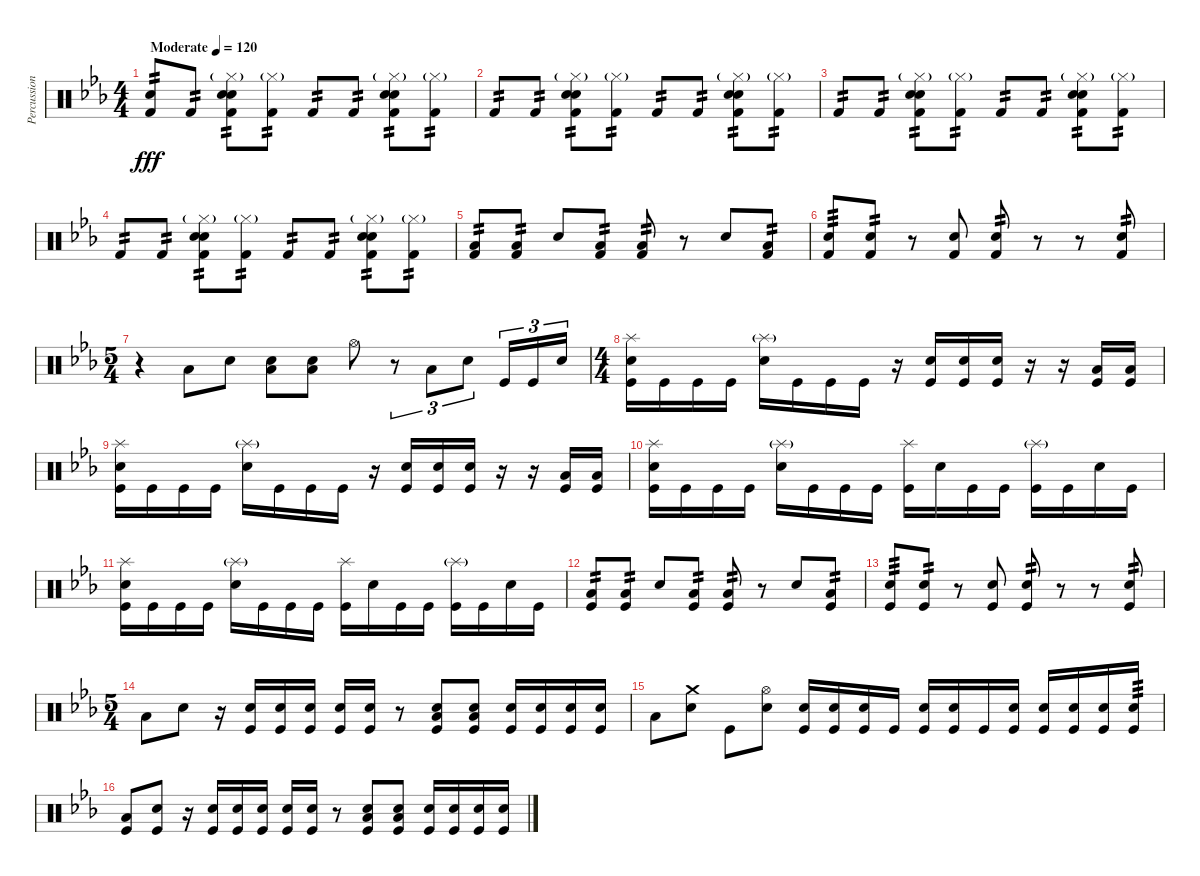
\track ("Percussion" "Percussion") {instrument percussion}
\staff {score}
\articulation defaults
\ts (4 4)
\tempo (120 "Moderate")
\clef neutral
\ks cminor
("Snare (hit) 2" "Kick (hit) 2").8{tp 2 dy fff} "Kick (hit) 2".8{tp 2} ("Electric Snare (hit)" "Hi-Hat (closed)"{g} "Hand Clap (hit)" "Kick (hit) 2").8{tp 2} ("Hi-Hat (closed)"{g} "Kick (hit) 2").8{tp 2} "Kick (hit) 2".8{tp 2} "Kick (hit) 2".8{tp 2} ("Electric Snare (hit)" "Hi-Hat (closed)"{g} "Hand Clap (hit)" "Kick (hit) 2").8{tp 2} ("Hi-Hat (closed)"{g} "Kick (hit) 2").8{tp 2} |
"Kick (hit) 2".8{tp 2} "Kick (hit) 2".8{tp 2} ("Electric Snare (hit)" "Hi-Hat (closed)"{g} "Hand Clap (hit)" "Kick (hit) 2").8{tp 2} ("Hi-Hat (closed)"{g} "Kick (hit) 2").8{tp 2} "Kick (hit) 2".8{tp 2} "Kick (hit) 2".8{tp 2} ("Electric Snare (hit)" "Hi-Hat (closed)"{g} "Hand Clap (hit)" "Kick (hit) 2").8{tp 2} ("Hi-Hat (closed)"{g} "Kick (hit) 2").8{tp 2} |
"Kick (hit) 2".8{tp 2} "Kick (hit) 2".8{tp 2} ("Electric Snare (hit)" "Hi-Hat (closed)"{g} "Hand Clap (hit)" "Kick (hit) 2").8{tp 2} ("Hi-Hat (closed)"{g} "Kick (hit) 2").8{tp 2} "Kick (hit) 2".8{tp 2} "Kick (hit) 2".8{tp 2} ("Electric Snare (hit)" "Hi-Hat (closed)"{g} "Hand Clap (hit)" "Kick (hit) 2").8{tp 2} ("Hi-Hat (closed)"{g} "Kick (hit) 2").8{tp 2} |
"Kick (hit) 2".8{tp 2} "Kick (hit) 2".8{tp 2} ("Electric Snare (hit)" "Hi-Hat (closed)"{g} "Hand Clap (hit)" "Kick (hit) 2").8{tp 2} ("Hi-Hat (closed)"{g} "Kick (hit) 2").8{tp 2} "Kick (hit) 2".8{tp 2} "Kick (hit) 2".8{tp 2} ("Electric Snare (hit)" "Hi-Hat (closed)"{g} "Hand Clap (hit)" "Kick (hit) 2").8{tp 2} ("Hi-Hat (closed)"{g} "Kick (hit) 2").8{tp 2} |
("Low Floor Tom (hit)" "Kick (hit) 2").8{tp 2} ("Low Floor Tom (hit)" "Kick (hit) 2").8{tp 2} "Hand Clap (hit)".8 ("Low Floor Tom (hit)" "Kick (hit) 2").8{tp 2} ("Low Floor Tom (hit)" "Kick (hit) 2").8{tp 2} r.8 "Hand Clap (hit)".8 ("Low Floor Tom (hit)" "Kick (hit) 2").8{tp 2} |
("Electric Snare (hit)" "Kick (hit) 2").8{tp 3} ("Electric Snare (hit)" "Kick (hit) 2").8{tp 2} r.8 ("Electric Snare (hit)" "Kick (hit) 2").8 ("Electric Snare (hit)" "Kick (hit) 2").8{tp 2} r.8 r.8 ("Electric Snare (hit)" "Kick (hit) 2").8{tp 2} |
\ts (5 4)
r.4 "Low Floor Tom (hit)".8 "Snare (hit) 2".8 ("Snare (hit) 2" "Low Floor Tom (hit)").8 ("Snare (hit) 2" "Low Floor Tom (hit)").8 "Hi-Hat (open)".8 r.8{tu (3 2)} "Low Floor Tom (hit)".8{tu (3 2)} "Snare (hit) 2".8{tu (3 2)} "Kick (hit)".16{tu (3 2)} "Kick (hit)".16{tu (3 2)} "Snare (hit) 2".16{tu (3 2)} |
\ts (4 4)
("Splash (hit)" "Snare (hit) 2" "Kick (hit)").16 "Kick (hit)".16 "Kick (hit)".16 "Kick (hit)".16 ("Splash (hit)"{g} "Snare (hit) 2").16 "Kick (hit)".16 "Kick (hit)".16 "Kick (hit)".16 r.16 ("Snare (hit) 2" "Kick (hit)").16 ("Snare (hit) 2" "Kick (hit)").16 ("Snare (hit) 2" "Kick (hit)").16 r.16 r.16 ("Kick (hit)" "Low Floor Tom (hit)").16 ("Kick (hit)" "Low Floor Tom (hit)").16 |
("Splash (hit)" "Snare (hit) 2" "Kick (hit)").16 "Kick (hit)".16 "Kick (hit)".16 "Kick (hit)".16 ("Splash (hit)"{g} "Snare (hit) 2").16 "Kick (hit)".16 "Kick (hit)".16 "Kick (hit)".16 r.16 ("Snare (hit) 2" "Kick (hit)").16 ("Snare (hit) 2" "Kick (hit)").16 ("Snare (hit) 2" "Kick (hit)").16 r.16 r.16 ("Kick (hit)" "Low Floor Tom (hit)").16 ("Kick (hit)" "Low Floor Tom (hit)").16 |
("Splash (hit)" "Snare (hit) 2" "Kick (hit)").16 "Kick (hit)".16 "Kick (hit)".16 "Kick (hit)".16 ("Splash (hit)"{g} "Snare (hit) 2").16 "Kick (hit)".16 "Kick (hit)".16 "Kick (hit)".16 ("Splash (hit)" "Kick (hit)").16 "Snare (hit) 2".16 "Kick (hit)".16 "Kick (hit)".16 ("Splash (hit)"{g} "Kick (hit)").16 "Kick (hit)".16 "Snare (hit) 2".16 "Kick (hit)".16 |
("Splash (hit)" "Snare (hit) 2" "Kick (hit)").16 "Kick (hit)".16 "Kick (hit)".16 "Kick (hit)".16 ("Splash (hit)"{g} "Snare (hit) 2").16 "Kick (hit)".16 "Kick (hit)".16 "Kick (hit)".16 ("Splash (hit)" "Kick (hit)").16 "Snare (hit) 2".16 "Kick (hit)".16 "Kick (hit)".16 ("Splash (hit)"{g} "Kick (hit)").16 "Kick (hit)".16 "Snare (hit) 2".16 "Kick (hit)".16 |
("Low Floor Tom (hit)" "Kick (hit)").8{tp 2} ("Low Floor Tom (hit)" "Kick (hit)").8{tp 2} "Snare (hit) 2".8 ("Low Floor Tom (hit)" "Kick (hit)").8{tp 2} ("Low Floor Tom (hit)" "Kick (hit)").8{tp 2} r.8 "Snare (hit) 2".8 ("Low Floor Tom (hit)" "Kick (hit)").8{tp 2} |
("Snare (hit) 2" "Kick (hit)").8{tp 3} ("Snare (hit) 2" "Kick (hit)").8{tp 2} r.8 ("Snare (hit) 2" "Kick (hit)").8 ("Snare (hit) 2" "Kick (hit)").8{tp 2} r.8 r.8 ("Snare (hit) 2" "Kick (hit)").8{tp 2} |
\ts (5 4)
"Low Floor Tom (hit)".8 "Snare (hit) 2".8 r.16 ("Snare (hit) 2" "Kick (hit)").16 ("Snare (hit) 2" "Kick (hit)").16 ("Snare (hit) 2" "Kick (hit)").16 ("Snare (hit) 2" "Kick (hit)").16 ("Snare (hit) 2" "Kick (hit)").16 r.8 ("Snare (hit) 2" "Low Floor Tom (hit)" "Kick (hit)").8 ("Snare (hit) 2" "Low Floor Tom (hit)" "Kick (hit)").8 ("Snare (hit) 2" "Kick (hit)").16 ("Snare (hit) 2" "Kick (hit)").16 ("Snare (hit) 2" "Kick (hit)").16 ("Snare (hit) 2" "Kick (hit)").16 |
"Low Floor Tom (hit)".8 ("Crash medium (hit)" "Snare (hit) 2").8 "Kick (hit)".8 ("Hi-Hat (open)" "Snare (hit) 2").8 ("Snare (hit) 2" "Kick (hit)").16 ("Snare (hit) 2" "Kick (hit)").16 ("Snare (hit) 2" "Kick (hit)").16 "Kick (hit)".16 ("Snare (hit) 2" "Kick (hit)").16 ("Snare (hit) 2" "Kick (hit)").16 "Kick (hit)".16 ("Snare (hit) 2" "Kick (hit)").16 ("Snare (hit) 2" "Kick (hit)").16 ("Snare (hit) 2" "Kick (hit)").16 ("Snare (hit) 2" "Kick (hit)").16 ("Snare (hit) 2" "Kick (hit)").16{tp 3} |
("Low Floor Tom (hit)" "Kick (hit)").8 ("Snare (hit) 2" "Kick (hit)").8 r.16 ("Snare (hit) 2" "Kick (hit)").16 ("Snare (hit) 2" "Kick (hit)").16 ("Snare (hit) 2" "Kick (hit)").16 ("Snare (hit) 2" "Kick (hit)").16 ("Snare (hit) 2" "Kick (hit)").16 r.8 ("Snare (hit) 2" "Low Floor Tom (hit)" "Kick (hit)").8 ("Snare (hit) 2" "Low Floor Tom (hit)" "Kick (hit)").8 ("Snare (hit) 2" "Kick (hit)").16 ("Snare (hit) 2" "Kick (hit)").16 ("Snare (hit) 2" "Kick (hit)").16 ("Snare (hit) 2" "Kick (hit)").16
